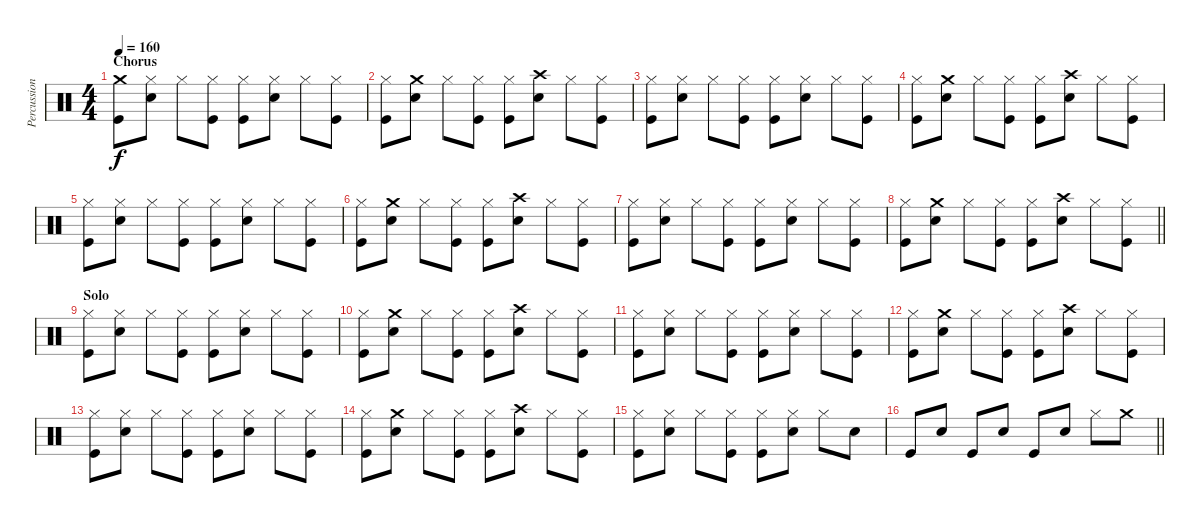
\track ("Percussion" "Percussion") {instrument percussion}
\staff {score}
\articulation defaults
\ts (4 4)
\section ("" "Chorus")
\tempo 160
\clef neutral
\ks c
("Crash medium (hit)" "Kick (hit)").8{dy f} ("Hi-Hat (closed)" "Electric Snare (hit)").8 "Hi-Hat (closed)".8 ("Hi-Hat (closed)" "Kick (hit)").8 ("Hi-Hat (closed)" "Kick (hit)").8 ("Hi-Hat (closed)" "Electric Snare (hit)").8 "Hi-Hat (closed)".8 ("Hi-Hat (closed)" "Kick (hit)").8 |
("Hi-Hat (closed)" "Kick (hit)").8 ("Crash medium (hit)" "Electric Snare (hit)").8 "Hi-Hat (closed)".8 ("Hi-Hat (closed)" "Kick (hit)").8 ("Hi-Hat (closed)" "Kick (hit)").8 ("Crash high (hit)" "Electric Snare (hit)").8 "Hi-Hat (closed)".8 ("Hi-Hat (closed)" "Kick (hit)").8 |
("Hi-Hat (closed)" "Kick (hit)").8 ("Hi-Hat (closed)" "Electric Snare (hit)").8 "Hi-Hat (closed)".8 ("Hi-Hat (closed)" "Kick (hit)").8 ("Hi-Hat (closed)" "Kick (hit)").8 ("Hi-Hat (closed)" "Electric Snare (hit)").8 "Hi-Hat (closed)".8 ("Hi-Hat (closed)" "Kick (hit)").8 |
("Hi-Hat (closed)" "Kick (hit)").8 ("Crash medium (hit)" "Electric Snare (hit)").8 "Hi-Hat (closed)".8 ("Hi-Hat (closed)" "Kick (hit)").8 ("Hi-Hat (closed)" "Kick (hit)").8 ("Crash high (hit)" "Electric Snare (hit)").8 "Hi-Hat (closed)".8 ("Hi-Hat (closed)" "Kick (hit)").8 |
("Hi-Hat (closed)" "Kick (hit)").8 ("Hi-Hat (closed)" "Electric Snare (hit)").8 "Hi-Hat (closed)".8 ("Hi-Hat (closed)" "Kick (hit)").8 ("Hi-Hat (closed)" "Kick (hit)").8 ("Hi-Hat (closed)" "Electric Snare (hit)").8 "Hi-Hat (closed)".8 ("Hi-Hat (closed)" "Kick (hit)").8 |
("Hi-Hat (closed)" "Kick (hit)").8 ("Crash medium (hit)" "Electric Snare (hit)").8 "Hi-Hat (closed)".8 ("Hi-Hat (closed)" "Kick (hit)").8 ("Hi-Hat (closed)" "Kick (hit)").8 ("Crash high (hit)" "Electric Snare (hit)").8 "Hi-Hat (closed)".8 ("Hi-Hat (closed)" "Kick (hit)").8 |
("Hi-Hat (closed)" "Kick (hit)").8 ("Hi-Hat (closed)" "Electric Snare (hit)").8 "Hi-Hat (closed)".8 ("Hi-Hat (closed)" "Kick (hit)").8 ("Hi-Hat (closed)" "Kick (hit)").8 ("Hi-Hat (closed)" "Electric Snare (hit)").8 "Hi-Hat (closed)".8 ("Hi-Hat (closed)" "Kick (hit)").8 |
\barLineRight lightlight
("Hi-Hat (closed)" "Kick (hit)").8 ("Crash medium (hit)" "Electric Snare (hit)").8 "Hi-Hat (closed)".8 ("Hi-Hat (closed)" "Kick (hit)").8 ("Hi-Hat (closed)" "Kick (hit)").8 ("Crash high (hit)" "Electric Snare (hit)").8 "Hi-Hat (closed)".8 ("Hi-Hat (closed)" "Kick (hit)").8 |
\section ("" "Solo")
("Hi-Hat (closed)" "Kick (hit)").8 ("Hi-Hat (closed)" "Electric Snare (hit)").8 "Hi-Hat (closed)".8 ("Hi-Hat (closed)" "Kick (hit)").8 ("Hi-Hat (closed)" "Kick (hit)").8 ("Hi-Hat (closed)" "Electric Snare (hit)").8 "Hi-Hat (closed)".8 ("Hi-Hat (closed)" "Kick (hit)").8 |
("Hi-Hat (closed)" "Kick (hit)").8 ("Crash medium (hit)" "Electric Snare (hit)").8 "Hi-Hat (closed)".8 ("Hi-Hat (closed)" "Kick (hit)").8 ("Hi-Hat (closed)" "Kick (hit)").8 ("Crash high (hit)" "Electric Snare (hit)").8 "Hi-Hat (closed)".8 ("Hi-Hat (closed)" "Kick (hit)").8 |
("Hi-Hat (closed)" "Kick (hit)").8 ("Hi-Hat (closed)" "Electric Snare (hit)").8 "Hi-Hat (closed)".8 ("Hi-Hat (closed)" "Kick (hit)").8 ("Hi-Hat (closed)" "Kick (hit)").8 ("Hi-Hat (closed)" "Electric Snare (hit)").8 "Hi-Hat (closed)".8 ("Hi-Hat (closed)" "Kick (hit)").8 |
("Hi-Hat (closed)" "Kick (hit)").8 ("Crash medium (hit)" "Electric Snare (hit)").8 "Hi-Hat (closed)".8 ("Hi-Hat (closed)" "Kick (hit)").8 ("Hi-Hat (closed)" "Kick (hit)").8 ("Crash high (hit)" "Electric Snare (hit)").8 "Hi-Hat (closed)".8 ("Hi-Hat (closed)" "Kick (hit)").8 |
("Hi-Hat (closed)" "Kick (hit)").8 ("Hi-Hat (closed)" "Electric Snare (hit)").8 "Hi-Hat (closed)".8 ("Hi-Hat (closed)" "Kick (hit)").8 ("Hi-Hat (closed)" "Kick (hit)").8 ("Hi-Hat (closed)" "Electric Snare (hit)").8 "Hi-Hat (closed)".8 ("Hi-Hat (closed)" "Kick (hit)").8 |
("Hi-Hat (closed)" "Kick (hit)").8 ("Crash medium (hit)" "Electric Snare (hit)").8 "Hi-Hat (closed)".8 ("Hi-Hat (closed)" "Kick (hit)").8 ("Hi-Hat (closed)" "Kick (hit)").8 ("Crash high (hit)" "Electric Snare (hit)").8 "Hi-Hat (closed)".8 ("Hi-Hat (closed)" "Kick (hit)").8 |
("Hi-Hat (closed)" "Kick (hit)").8 ("Hi-Hat (closed)" "Electric Snare (hit)").8 "Hi-Hat (closed)".8 ("Hi-Hat (closed)" "Kick (hit)").8 ("Hi-Hat (closed)" "Kick (hit)").8 ("Hi-Hat (closed)" "Electric Snare (hit)").8 "Hi-Hat (closed)".8 "Electric Snare (hit)".8 |
\barLineRight lightlight "Kick (hit)".8 "Electric Snare (hit)".8 "Kick (hit)".8 "Electric Snare (hit)".8 "Kick (hit)".8 "Electric Snare (hit)".8 "Hi-Hat (closed)".8 "Crash medium (hit)".8
